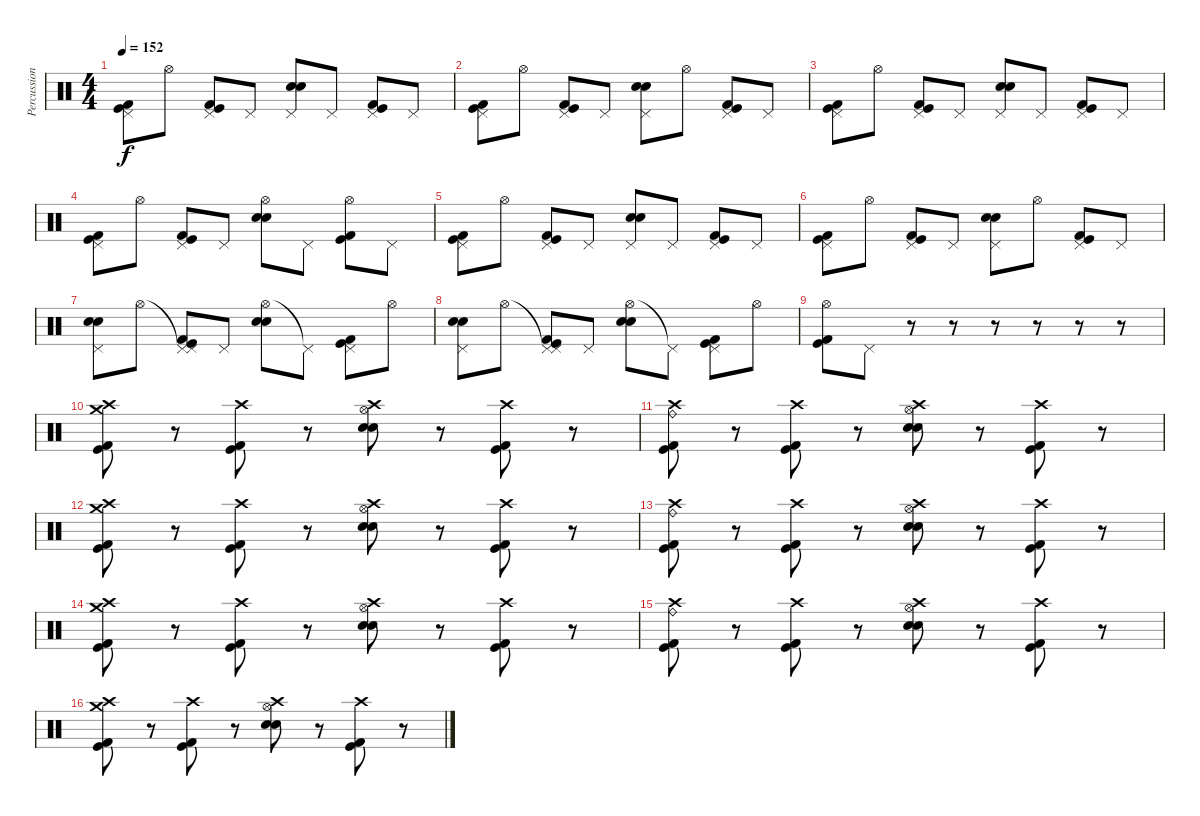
\track ("Percussion" "Percussion") {instrument percussion}
\staff {score}
\articulation defaults
\ts (4 4)
\tempo 152
\clef neutral
\ks c
("Pedal Hi-Hat (hit)" "Kick (hit) 2" "Kick (hit)").8{dy f} "Hi-Hat (open)".8 ("Pedal Hi-Hat (hit)" "Kick (hit) 2" "Kick (hit)").8 "Pedal Hi-Hat (hit)".8 ("Pedal Hi-Hat (hit)" "Electric Snare (hit)" "Snare (hit) 2").8 "Pedal Hi-Hat (hit)".8 ("Pedal Hi-Hat (hit)" "Kick (hit) 2" "Kick (hit)").8 "Pedal Hi-Hat (hit)".8 |
("Pedal Hi-Hat (hit)" "Kick (hit) 2" "Kick (hit)").8 "Hi-Hat (open)".8 ("Pedal Hi-Hat (hit)" "Kick (hit) 2" "Kick (hit)").8 "Pedal Hi-Hat (hit)".8 ("Pedal Hi-Hat (hit)" "Electric Snare (hit)" "Snare (hit) 2").8 "Hi-Hat (open)".8 ("Pedal Hi-Hat (hit)" "Kick (hit) 2" "Kick (hit)").8 "Pedal Hi-Hat (hit)".8 |
("Pedal Hi-Hat (hit)" "Kick (hit) 2" "Kick (hit)").8 "Hi-Hat (open)".8 ("Pedal Hi-Hat (hit)" "Kick (hit) 2" "Kick (hit)").8 "Pedal Hi-Hat (hit)".8 ("Pedal Hi-Hat (hit)" "Electric Snare (hit)" "Snare (hit) 2").8 "Pedal Hi-Hat (hit)".8 ("Pedal Hi-Hat (hit)" "Kick (hit) 2" "Kick (hit)").8 "Pedal Hi-Hat (hit)".8 |
("Pedal Hi-Hat (hit)" "Kick (hit) 2" "Kick (hit)").8 "Hi-Hat (open)".8 ("Pedal Hi-Hat (hit)" "Kick (hit) 2" "Kick (hit)").8 "Pedal Hi-Hat (hit)".8 ("Hi-Hat (open)" "Electric Snare (hit)" "Snare (hit) 2").8 "Pedal Hi-Hat (hit)".8 ("Hi-Hat (open)" "Kick (hit) 2" "Kick (hit)").8 "Pedal Hi-Hat (hit)".8 |
("Pedal Hi-Hat (hit)" "Kick (hit) 2" "Kick (hit)").8 "Hi-Hat (open)".8 ("Pedal Hi-Hat (hit)" "Kick (hit) 2" "Kick (hit)").8 "Pedal Hi-Hat (hit)".8 ("Pedal Hi-Hat (hit)" "Electric Snare (hit)" "Snare (hit) 2").8 "Pedal Hi-Hat (hit)".8 ("Pedal Hi-Hat (hit)" "Kick (hit) 2" "Kick (hit)").8 "Pedal Hi-Hat (hit)".8 |
("Pedal Hi-Hat (hit)" "Kick (hit) 2" "Kick (hit)").8 "Hi-Hat (open)".8 ("Pedal Hi-Hat (hit)" "Kick (hit) 2" "Kick (hit)").8 "Pedal Hi-Hat (hit)".8 ("Pedal Hi-Hat (hit)" "Electric Snare (hit)" "Snare (hit) 2").8 "Hi-Hat (open)".8 ("Pedal Hi-Hat (hit)" "Kick (hit) 2" "Kick (hit)").8 "Pedal Hi-Hat (hit)".8 |
("Pedal Hi-Hat (hit)" "Electric Snare (hit)" "Snare (hit) 2").8 "Hi-Hat (open)".8 ("Pedal Hi-Hat (hit)"{t} "Pedal Hi-Hat (hit)" "Kick (hit) 2" "Kick (hit)").8 "Pedal Hi-Hat (hit)".8 ("Hi-Hat (open)" "Electric Snare (hit)" "Snare (hit) 2").8 "Pedal Hi-Hat (hit)"{t}.8 ("Pedal Hi-Hat (hit)" "Kick (hit) 2" "Kick (hit)").8 "Hi-Hat (open)".8 |
("Pedal Hi-Hat (hit)" "Electric Snare (hit)" "Snare (hit) 2").8 "Hi-Hat (open)".8 ("Pedal Hi-Hat (hit)"{t} "Pedal Hi-Hat (hit)" "Kick (hit) 2" "Kick (hit)").8 "Pedal Hi-Hat (hit)".8 ("Hi-Hat (open)" "Electric Snare (hit)" "Snare (hit) 2").8 "Pedal Hi-Hat (hit)"{t}.8 ("Pedal Hi-Hat (hit)" "Kick (hit) 2" "Kick (hit)").8 "Hi-Hat (open)".8 |
("Hi-Hat (open)" "Kick (hit) 2" "Kick (hit)").8 "Pedal Hi-Hat (hit)".8 r.8 r.8 r.8 r.8 r.8 r.8 |
("Crash high (hit)" "Crash medium (hit)" "Kick (hit) 2" "Kick (hit)").8 r.8 ("Crash high (hit)" "Kick (hit) 2" "Kick (hit)").8 r.8 ("Crash high (hit)" "Hi-Hat (open)" "Electric Snare (hit)" "Snare (hit) 2").8 r.8 ("Crash high (hit)" "Kick (hit) 2" "Kick (hit)").8 r.8 |
("Crash high (hit)" "Ride (bell)" "Kick (hit) 2" "Kick (hit)").8 r.8 ("Crash high (hit)" "Kick (hit) 2" "Kick (hit)").8 r.8 ("Crash high (hit)" "Hi-Hat (open)" "Electric Snare (hit)" "Snare (hit) 2").8 r.8 ("Crash high (hit)" "Kick (hit) 2" "Kick (hit)").8 r.8 |
("Crash high (hit)" "Crash medium (hit)" "Kick (hit) 2" "Kick (hit)").8 r.8 ("Crash high (hit)" "Kick (hit) 2" "Kick (hit)").8 r.8 ("Crash high (hit)" "Hi-Hat (open)" "Electric Snare (hit)" "Snare (hit) 2").8 r.8 ("Crash high (hit)" "Kick (hit) 2" "Kick (hit)").8 r.8 |
("Crash high (hit)" "Ride (bell)" "Kick (hit) 2" "Kick (hit)").8 r.8 ("Crash high (hit)" "Kick (hit) 2" "Kick (hit)").8 r.8 ("Crash high (hit)" "Hi-Hat (open)" "Electric Snare (hit)" "Snare (hit) 2").8 r.8 ("Crash high (hit)" "Kick (hit) 2" "Kick (hit)").8 r.8 |
("Crash high (hit)" "Crash medium (hit)" "Kick (hit) 2" "Kick (hit)").8 r.8 ("Crash high (hit)" "Kick (hit) 2" "Kick (hit)").8 r.8 ("Crash high (hit)" "Hi-Hat (open)" "Electric Snare (hit)" "Snare (hit) 2").8 r.8 ("Crash high (hit)" "Kick (hit) 2" "Kick (hit)").8 r.8 |
("Crash high (hit)" "Ride (bell)" "Kick (hit) 2" "Kick (hit)").8 r.8 ("Crash high (hit)" "Kick (hit) 2" "Kick (hit)").8 r.8 ("Crash high (hit)" "Hi-Hat (open)" "Electric Snare (hit)" "Snare (hit) 2").8 r.8 ("Crash high (hit)" "Kick (hit) 2" "Kick (hit)").8 r.8 |
("Crash high (hit)" "Crash medium (hit)" "Kick (hit) 2" "Kick (hit)").8 r.8 ("Crash high (hit)" "Kick (hit) 2" "Kick (hit)").8 r.8 ("Crash high (hit)" "Hi-Hat (open)" "Electric Snare (hit)" "Snare (hit) 2").8 r.8 ("Crash high (hit)" "Kick (hit) 2" "Kick (hit)").8 r.8
